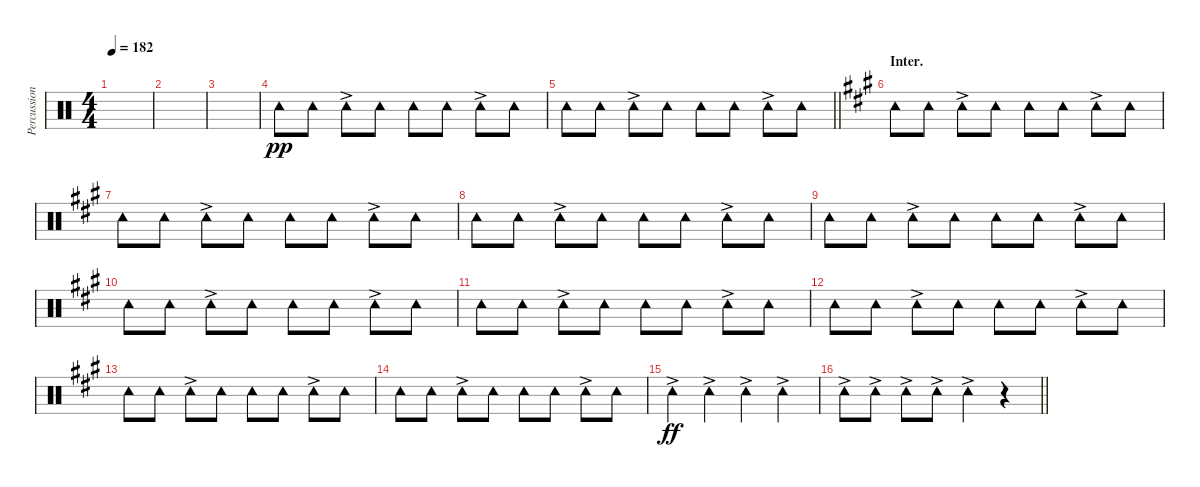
\track ("Percussion (Tainaka Ritsu)" "Percussion") {instrument percussion}
\staff {score}
\articulation defaults
\ts (4 4)
\tempo 182
\clef neutral
\ks c
|
|
|
"Tambourine (hit)".8{dy pp} "Tambourine (hit)".8 "Tambourine (hit)"{ac}.8 "Tambourine (hit)".8 "Tambourine (hit)".8 "Tambourine (hit)".8 "Tambourine (hit)"{ac}.8 "Tambourine (hit)".8 |
\barLineRight lightlight "Tambourine (hit)".8 "Tambourine (hit)".8 "Tambourine (hit)"{ac}.8 "Tambourine (hit)".8 "Tambourine (hit)".8 "Tambourine (hit)".8 "Tambourine (hit)"{ac}.8 "Tambourine (hit)".8
|
\section ("" "Inter.")
\ks a "Tambourine (hit)".8 "Tambourine (hit)".8 "Tambourine (hit)"{ac}.8 "Tambourine (hit)".8 "Tambourine (hit)".8 "Tambourine (hit)".8 "Tambourine (hit)"{ac}.8 "Tambourine (hit)".8
|
"Tambourine (hit)".8 "Tambourine (hit)".8 "Tambourine (hit)"{ac}.8 "Tambourine (hit)".8 "Tambourine (hit)".8 "Tambourine (hit)".8 "Tambourine (hit)"{ac}.8 "Tambourine (hit)".8 |
"Tambourine (hit)".8 "Tambourine (hit)".8 "Tambourine (hit)"{ac}.8 "Tambourine (hit)".8 "Tambourine (hit)".8 "Tambourine (hit)".8 "Tambourine (hit)"{ac}.8 "Tambourine (hit)".8 |
"Tambourine (hit)".8 "Tambourine (hit)".8 "Tambourine (hit)"{ac}.8 "Tambourine (hit)".8 "Tambourine (hit)".8 "Tambourine (hit)".8 "Tambourine (hit)"{ac}.8 "Tambourine (hit)".8 |
"Tambourine (hit)".8 "Tambourine (hit)".8 "Tambourine (hit)"{ac}.8 "Tambourine (hit)".8 "Tambourine (hit)".8 "Tambourine (hit)".8 "Tambourine (hit)"{ac}.8 "Tambourine (hit)".8 |
"Tambourine (hit)".8 "Tambourine (hit)".8 "Tambourine (hit)"{ac}.8 "Tambourine (hit)".8 "Tambourine (hit)".8 "Tambourine (hit)".8 "Tambourine (hit)"{ac}.8 "Tambourine (hit)".8 |
"Tambourine (hit)".8 "Tambourine (hit)".8 "Tambourine (hit)"{ac}.8 "Tambourine (hit)".8 "Tambourine (hit)".8 "Tambourine (hit)".8 "Tambourine (hit)"{ac}.8 "Tambourine (hit)".8 |
"Tambourine (hit)".8 "Tambourine (hit)".8 "Tambourine (hit)"{ac}.8 "Tambourine (hit)".8 "Tambourine (hit)".8 "Tambourine (hit)".8 "Tambourine (hit)"{ac}.8 "Tambourine (hit)".8 |
"Tambourine (hit)".8 "Tambourine (hit)".8 "Tambourine (hit)"{ac}.8 "Tambourine (hit)".8 "Tambourine (hit)".8 "Tambourine (hit)".8 "Tambourine (hit)"{ac}.8 "Tambourine (hit)".8 |
"Tambourine (hit)"{ac}.4{dy ff} "Tambourine (hit)"{ac}.4 "Tambourine (hit)"{ac}.4 "Tambourine (hit)"{ac}.4 |
\barLineRight lightlight "Tambourine (hit)"{ac}.8 "Tambourine (hit)"{ac}.8 "Tambourine (hit)"{ac}.8 "Tambourine (hit)"{ac}.8 "Tambourine (hit)"{ac}.4
r.4
